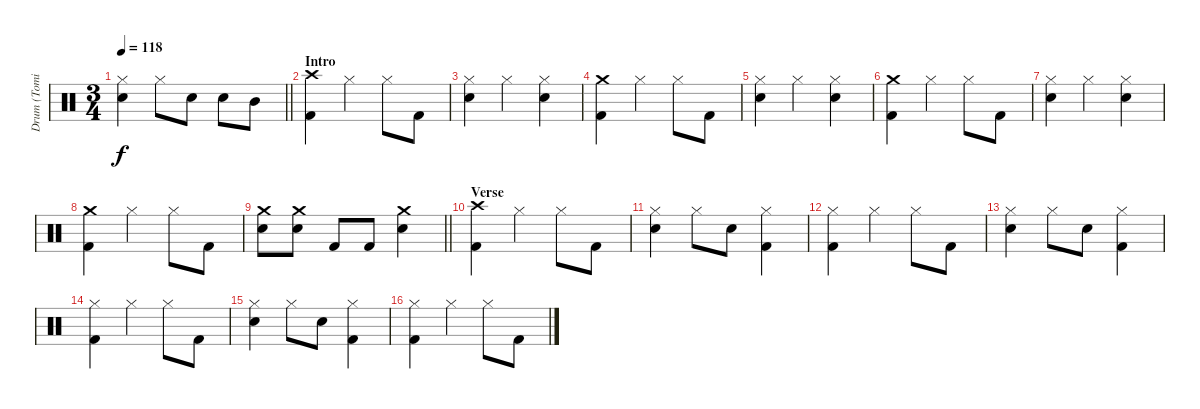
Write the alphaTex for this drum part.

\track ("Drum (Tomi)" "Drum (Tomi") {instrument percussion}
\staff {score}
\articulation defaults
\ts (3 4)
\tempo 118
\clef neutral
\barLineRight lightlight
\ks c
("Hi-Hat (closed)" "Electric Snare (hit)").4{dy f} "Hi-Hat (closed)".8 "Electric Snare (hit)".8 "Electric Snare (hit)".8 "Mid Tom (hit)".8 |
\section ("" "Intro")
("Crash high (hit)" "Kick (hit) 2").4 "Hi-Hat (closed)".4 "Hi-Hat (closed)".8 "Kick (hit) 2".8 |
("Hi-Hat (closed)" "Electric Snare (hit)").4 "Hi-Hat (closed)".4 ("Hi-Hat (closed)" "Electric Snare (hit)").4 |
("Crash medium (hit)" "Kick (hit) 2").4 "Hi-Hat (closed)".4 "Hi-Hat (closed)".8 "Kick (hit) 2".8 |
("Hi-Hat (closed)" "Electric Snare (hit)").4 "Hi-Hat (closed)".4 ("Hi-Hat (closed)" "Electric Snare (hit)").4 |
("Crash medium (hit)" "Kick (hit) 2").4 "Hi-Hat (closed)".4 "Hi-Hat (closed)".8 "Kick (hit) 2".8 |
("Hi-Hat (closed)" "Electric Snare (hit)").4 "Hi-Hat (closed)".4 ("Hi-Hat (closed)" "Electric Snare (hit)").4 |
("Crash medium (hit)" "Kick (hit) 2").4 "Hi-Hat (closed)".4 "Hi-Hat (closed)".8 "Kick (hit) 2".8 |
\barLineRight lightlight
("Crash medium (hit)" "Electric Snare (hit)").8 ("Crash medium (hit)" "Electric Snare (hit)").8 "Kick (hit) 2".8 "Kick (hit) 2".8 ("Crash medium (hit)" "Electric Snare (hit)").4 |
\section ("" "Verse")
("Crash high (hit)" "Kick (hit) 2").4 "Hi-Hat (closed)".4 "Hi-Hat (closed)".8 "Kick (hit) 2".8 |
("Hi-Hat (closed)" "Electric Snare (hit)").4 "Hi-Hat (closed)".8 "Electric Snare (hit)".8 ("Hi-Hat (closed)" "Kick (hit) 2").4 |
("Hi-Hat (closed)" "Kick (hit) 2").4 "Hi-Hat (closed)".4 "Hi-Hat (closed)".8 "Kick (hit) 2".8 |
("Hi-Hat (closed)" "Electric Snare (hit)").4 "Hi-Hat (closed)".8 "Electric Snare (hit)".8 ("Hi-Hat (closed)" "Kick (hit) 2").4 |
("Hi-Hat (closed)" "Kick (hit) 2").4 "Hi-Hat (closed)".4 "Hi-Hat (closed)".8 "Kick (hit) 2".8 |
("Hi-Hat (closed)" "Electric Snare (hit)").4 "Hi-Hat (closed)".8 "Electric Snare (hit)".8 ("Hi-Hat (closed)" "Kick (hit) 2").4 |
("Hi-Hat (closed)" "Kick (hit) 2").4 "Hi-Hat (closed)".4 "Hi-Hat (closed)".8 "Kick (hit) 2".8
